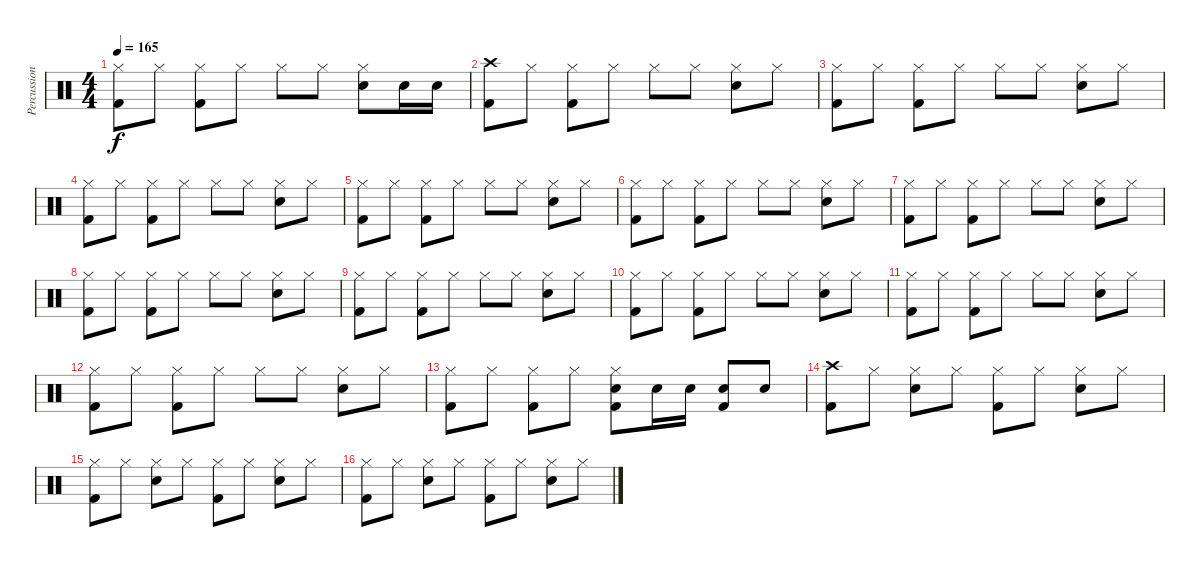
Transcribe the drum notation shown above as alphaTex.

\track ("Percussion" "Percussion") {instrument percussion}
\staff {score}
\articulation defaults
\ts (4 4)
\tempo 165
\clef neutral
\ks c
("Hi-Hat (closed)" "Kick (hit) 2").8{dy f} "Hi-Hat (closed)".8 ("Hi-Hat (closed)" "Kick (hit) 2").8 "Hi-Hat (closed)".8 "Hi-Hat (closed)".8 "Hi-Hat (closed)".8 ("Hi-Hat (closed)" "Snare (hit) 2").8 "Snare (hit) 2".16 "Snare (hit) 2".16 |
("Crash high (hit)" "Kick (hit) 2").8 "Hi-Hat (closed)".8 ("Hi-Hat (closed)" "Kick (hit) 2").8 "Hi-Hat (closed)".8 "Hi-Hat (closed)".8 "Hi-Hat (closed)".8 ("Hi-Hat (closed)" "Snare (hit) 2").8 "Hi-Hat (closed)".8 |
("Hi-Hat (closed)" "Kick (hit) 2").8 "Hi-Hat (closed)".8 ("Hi-Hat (closed)" "Kick (hit) 2").8 "Hi-Hat (closed)".8 "Hi-Hat (closed)".8 "Hi-Hat (closed)".8 ("Hi-Hat (closed)" "Snare (hit) 2").8 "Hi-Hat (closed)".8 |
("Hi-Hat (closed)" "Kick (hit) 2").8 "Hi-Hat (closed)".8 ("Hi-Hat (closed)" "Kick (hit) 2").8 "Hi-Hat (closed)".8 "Hi-Hat (closed)".8 "Hi-Hat (closed)".8 ("Hi-Hat (closed)" "Snare (hit) 2").8 "Hi-Hat (closed)".8 |
("Hi-Hat (closed)" "Kick (hit) 2").8 "Hi-Hat (closed)".8 ("Hi-Hat (closed)" "Kick (hit) 2").8 "Hi-Hat (closed)".8 "Hi-Hat (closed)".8 "Hi-Hat (closed)".8 ("Hi-Hat (closed)" "Snare (hit) 2").8 "Hi-Hat (closed)".8 |
("Hi-Hat (closed)" "Kick (hit) 2").8 "Hi-Hat (closed)".8 ("Hi-Hat (closed)" "Kick (hit) 2").8 "Hi-Hat (closed)".8 "Hi-Hat (closed)".8 "Hi-Hat (closed)".8 ("Hi-Hat (closed)" "Snare (hit) 2").8 "Hi-Hat (closed)".8 |
("Hi-Hat (closed)" "Kick (hit) 2").8 "Hi-Hat (closed)".8 ("Hi-Hat (closed)" "Kick (hit) 2").8 "Hi-Hat (closed)".8 "Hi-Hat (closed)".8 "Hi-Hat (closed)".8 ("Hi-Hat (closed)" "Snare (hit) 2").8 "Hi-Hat (closed)".8 |
("Hi-Hat (closed)" "Kick (hit) 2").8 "Hi-Hat (closed)".8 ("Hi-Hat (closed)" "Kick (hit) 2").8 "Hi-Hat (closed)".8 "Hi-Hat (closed)".8 "Hi-Hat (closed)".8 ("Hi-Hat (closed)" "Snare (hit) 2").8 "Hi-Hat (closed)".8 |
("Hi-Hat (closed)" "Kick (hit) 2").8 "Hi-Hat (closed)".8 ("Hi-Hat (closed)" "Kick (hit) 2").8 "Hi-Hat (closed)".8 "Hi-Hat (closed)".8 "Hi-Hat (closed)".8 ("Hi-Hat (closed)" "Snare (hit) 2").8 "Hi-Hat (closed)".8 |
("Hi-Hat (closed)" "Kick (hit) 2").8 "Hi-Hat (closed)".8 ("Hi-Hat (closed)" "Kick (hit) 2").8 "Hi-Hat (closed)".8 "Hi-Hat (closed)".8 "Hi-Hat (closed)".8 ("Hi-Hat (closed)" "Snare (hit) 2").8 "Hi-Hat (closed)".8 |
("Hi-Hat (closed)" "Kick (hit) 2").8 "Hi-Hat (closed)".8 ("Hi-Hat (closed)" "Kick (hit) 2").8 "Hi-Hat (closed)".8 "Hi-Hat (closed)".8 "Hi-Hat (closed)".8 ("Hi-Hat (closed)" "Snare (hit) 2").8 "Hi-Hat (closed)".8 |
("Hi-Hat (closed)" "Kick (hit) 2").8 "Hi-Hat (closed)".8 ("Hi-Hat (closed)" "Kick (hit) 2").8 "Hi-Hat (closed)".8 "Hi-Hat (closed)".8 "Hi-Hat (closed)".8 ("Hi-Hat (closed)" "Snare (hit) 2").8 "Hi-Hat (closed)".8 |
("Hi-Hat (closed)" "Kick (hit) 2").8 "Hi-Hat (closed)".8 ("Hi-Hat (closed)" "Kick (hit) 2").8 "Hi-Hat (closed)".8 ("Hi-Hat (closed)" "Snare (hit) 2" "Kick (hit) 2").8 "Snare (hit) 2".16 "Snare (hit) 2".16 ("Snare (hit) 2" "Kick (hit) 2").8 "Snare (hit) 2".8 |
("Crash high (hit)" "Kick (hit) 2").8 "Hi-Hat (closed)".8 ("Hi-Hat (closed)" "Snare (hit) 2").8 "Hi-Hat (closed)".8 ("Hi-Hat (closed)" "Kick (hit) 2").8 "Hi-Hat (closed)".8 ("Hi-Hat (closed)" "Snare (hit) 2").8 "Hi-Hat (closed)".8 |
("Hi-Hat (closed)" "Kick (hit) 2").8 "Hi-Hat (closed)".8 ("Hi-Hat (closed)" "Snare (hit) 2").8 "Hi-Hat (closed)".8 ("Hi-Hat (closed)" "Kick (hit) 2").8 "Hi-Hat (closed)".8 ("Hi-Hat (closed)" "Snare (hit) 2").8 "Hi-Hat (closed)".8 |
("Hi-Hat (closed)" "Kick (hit) 2").8 "Hi-Hat (closed)".8 ("Hi-Hat (closed)" "Snare (hit) 2").8 "Hi-Hat (closed)".8 ("Hi-Hat (closed)" "Kick (hit) 2").8 "Hi-Hat (closed)".8 ("Hi-Hat (closed)" "Snare (hit) 2").8 "Hi-Hat (closed)".8
